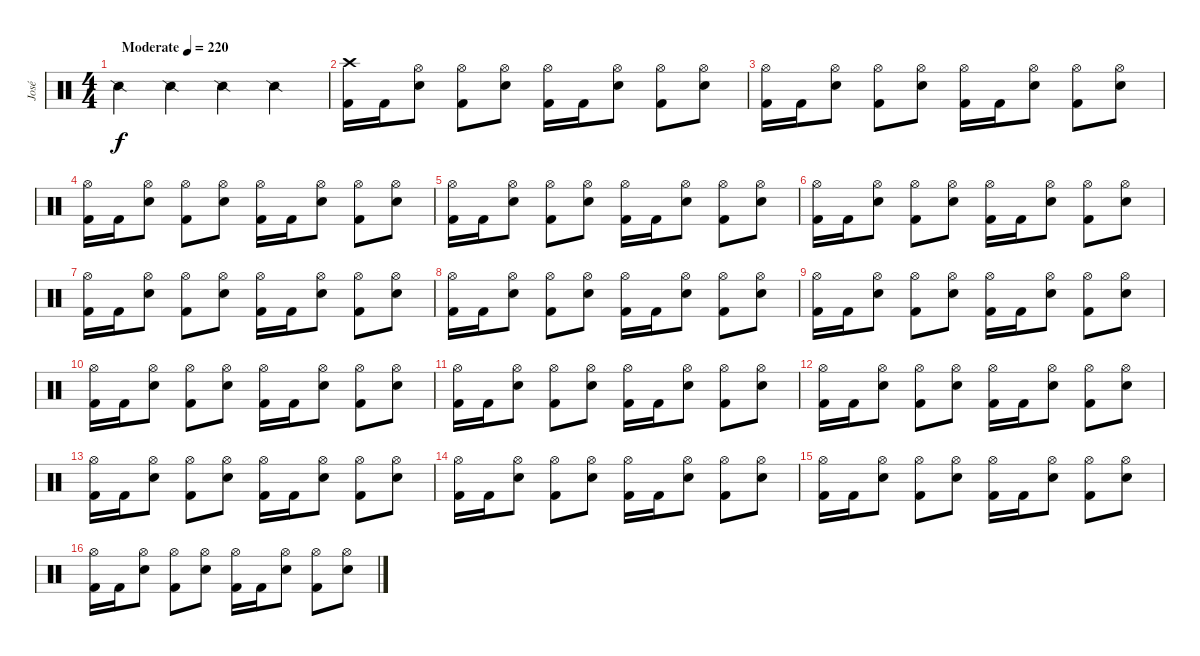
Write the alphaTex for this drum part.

\track ("José" "José") {instrument percussion}
\staff {score}
\articulation defaults
\ts (4 4)
\tempo (220 "Moderate")
\clef neutral
\ks c "Snare (side stick) 2".4{dy f} "Snare (side stick) 2".4 "Snare (side stick) 2".4 "Snare (side stick) 2".4
|
("Crash high (hit)" "Kick (hit) 2").16 "Kick (hit) 2".16 ("Hi-Hat (open)" "Electric Snare (hit)").8 ("Hi-Hat (open)" "Kick (hit) 2").8 ("Hi-Hat (open)" "Electric Snare (hit)").8 ("Hi-Hat (open)" "Kick (hit) 2").16 "Kick (hit) 2".16 ("Hi-Hat (open)" "Electric Snare (hit)").8 ("Hi-Hat (open)" "Kick (hit) 2").8 ("Hi-Hat (open)" "Electric Snare (hit)").8 |
("Hi-Hat (open)" "Kick (hit) 2").16 "Kick (hit) 2".16 ("Hi-Hat (open)" "Electric Snare (hit)").8 ("Hi-Hat (open)" "Kick (hit) 2").8 ("Hi-Hat (open)" "Electric Snare (hit)").8 ("Hi-Hat (open)" "Kick (hit) 2").16 "Kick (hit) 2".16 ("Hi-Hat (open)" "Electric Snare (hit)").8 ("Hi-Hat (open)" "Kick (hit) 2").8 ("Hi-Hat (open)" "Electric Snare (hit)").8 |
("Hi-Hat (open)" "Kick (hit) 2").16 "Kick (hit) 2".16 ("Hi-Hat (open)" "Electric Snare (hit)").8 ("Hi-Hat (open)" "Kick (hit) 2").8 ("Hi-Hat (open)" "Electric Snare (hit)").8 ("Hi-Hat (open)" "Kick (hit) 2").16 "Kick (hit) 2".16 ("Hi-Hat (open)" "Electric Snare (hit)").8 ("Hi-Hat (open)" "Kick (hit) 2").8 ("Hi-Hat (open)" "Electric Snare (hit)").8 |
("Hi-Hat (open)" "Kick (hit) 2").16 "Kick (hit) 2".16 ("Hi-Hat (open)" "Electric Snare (hit)").8 ("Hi-Hat (open)" "Kick (hit) 2").8 ("Hi-Hat (open)" "Electric Snare (hit)").8 ("Hi-Hat (open)" "Kick (hit) 2").16 "Kick (hit) 2".16 ("Hi-Hat (open)" "Electric Snare (hit)").8 ("Hi-Hat (open)" "Kick (hit) 2").8 ("Hi-Hat (open)" "Electric Snare (hit)").8 |
("Hi-Hat (open)" "Kick (hit) 2").16 "Kick (hit) 2".16 ("Hi-Hat (open)" "Electric Snare (hit)").8 ("Hi-Hat (open)" "Kick (hit) 2").8 ("Hi-Hat (open)" "Electric Snare (hit)").8 ("Hi-Hat (open)" "Kick (hit) 2").16 "Kick (hit) 2".16 ("Hi-Hat (open)" "Electric Snare (hit)").8 ("Hi-Hat (open)" "Kick (hit) 2").8 ("Hi-Hat (open)" "Electric Snare (hit)").8 |
("Hi-Hat (open)" "Kick (hit) 2").16 "Kick (hit) 2".16 ("Hi-Hat (open)" "Electric Snare (hit)").8 ("Hi-Hat (open)" "Kick (hit) 2").8 ("Hi-Hat (open)" "Electric Snare (hit)").8 ("Hi-Hat (open)" "Kick (hit) 2").16 "Kick (hit) 2".16 ("Hi-Hat (open)" "Electric Snare (hit)").8 ("Hi-Hat (open)" "Kick (hit) 2").8 ("Hi-Hat (open)" "Electric Snare (hit)").8 |
("Hi-Hat (open)" "Kick (hit) 2").16 "Kick (hit) 2".16 ("Hi-Hat (open)" "Electric Snare (hit)").8 ("Hi-Hat (open)" "Kick (hit) 2").8 ("Hi-Hat (open)" "Electric Snare (hit)").8 ("Hi-Hat (open)" "Kick (hit) 2").16 "Kick (hit) 2".16 ("Hi-Hat (open)" "Electric Snare (hit)").8 ("Hi-Hat (open)" "Kick (hit) 2").8 ("Hi-Hat (open)" "Electric Snare (hit)").8 |
("Hi-Hat (open)" "Kick (hit) 2").16 "Kick (hit) 2".16 ("Hi-Hat (open)" "Electric Snare (hit)").8 ("Hi-Hat (open)" "Kick (hit) 2").8 ("Hi-Hat (open)" "Electric Snare (hit)").8 ("Hi-Hat (open)" "Kick (hit) 2").16 "Kick (hit) 2".16 ("Hi-Hat (open)" "Electric Snare (hit)").8 ("Hi-Hat (open)" "Kick (hit) 2").8 ("Hi-Hat (open)" "Electric Snare (hit)").8 |
("Hi-Hat (open)" "Kick (hit) 2").16 "Kick (hit) 2".16 ("Hi-Hat (open)" "Electric Snare (hit)").8 ("Hi-Hat (open)" "Kick (hit) 2").8 ("Hi-Hat (open)" "Electric Snare (hit)").8 ("Hi-Hat (open)" "Kick (hit) 2").16 "Kick (hit) 2".16 ("Hi-Hat (open)" "Electric Snare (hit)").8 ("Hi-Hat (open)" "Kick (hit) 2").8 ("Hi-Hat (open)" "Electric Snare (hit)").8 |
("Hi-Hat (open)" "Kick (hit) 2").16 "Kick (hit) 2".16 ("Hi-Hat (open)" "Electric Snare (hit)").8 ("Hi-Hat (open)" "Kick (hit) 2").8 ("Hi-Hat (open)" "Electric Snare (hit)").8 ("Hi-Hat (open)" "Kick (hit) 2").16 "Kick (hit) 2".16 ("Hi-Hat (open)" "Electric Snare (hit)").8 ("Hi-Hat (open)" "Kick (hit) 2").8 ("Hi-Hat (open)" "Electric Snare (hit)").8 |
("Hi-Hat (open)" "Kick (hit) 2").16 "Kick (hit) 2".16 ("Hi-Hat (open)" "Electric Snare (hit)").8 ("Hi-Hat (open)" "Kick (hit) 2").8 ("Hi-Hat (open)" "Electric Snare (hit)").8 ("Hi-Hat (open)" "Kick (hit) 2").16 "Kick (hit) 2".16 ("Hi-Hat (open)" "Electric Snare (hit)").8 ("Hi-Hat (open)" "Kick (hit) 2").8 ("Hi-Hat (open)" "Electric Snare (hit)").8 |
("Hi-Hat (open)" "Kick (hit) 2").16 "Kick (hit) 2".16 ("Hi-Hat (open)" "Electric Snare (hit)").8 ("Hi-Hat (open)" "Kick (hit) 2").8 ("Hi-Hat (open)" "Electric Snare (hit)").8 ("Hi-Hat (open)" "Kick (hit) 2").16 "Kick (hit) 2".16 ("Hi-Hat (open)" "Electric Snare (hit)").8 ("Hi-Hat (open)" "Kick (hit) 2").8 ("Hi-Hat (open)" "Electric Snare (hit)").8 |
("Hi-Hat (open)" "Kick (hit) 2").16 "Kick (hit) 2".16 ("Hi-Hat (open)" "Electric Snare (hit)").8 ("Hi-Hat (open)" "Kick (hit) 2").8 ("Hi-Hat (open)" "Electric Snare (hit)").8 ("Hi-Hat (open)" "Kick (hit) 2").16 "Kick (hit) 2".16 ("Hi-Hat (open)" "Electric Snare (hit)").8 ("Hi-Hat (open)" "Kick (hit) 2").8 ("Hi-Hat (open)" "Electric Snare (hit)").8 |
("Hi-Hat (open)" "Kick (hit) 2").16 "Kick (hit) 2".16 ("Hi-Hat (open)" "Electric Snare (hit)").8 ("Hi-Hat (open)" "Kick (hit) 2").8 ("Hi-Hat (open)" "Electric Snare (hit)").8 ("Hi-Hat (open)" "Kick (hit) 2").16 "Kick (hit) 2".16 ("Hi-Hat (open)" "Electric Snare (hit)").8 ("Hi-Hat (open)" "Kick (hit) 2").8 ("Hi-Hat (open)" "Electric Snare (hit)").8 |
("Hi-Hat (open)" "Kick (hit) 2").16 "Kick (hit) 2".16 ("Hi-Hat (open)" "Electric Snare (hit)").8 ("Hi-Hat (open)" "Kick (hit) 2").8 ("Hi-Hat (open)" "Electric Snare (hit)").8 ("Hi-Hat (open)" "Kick (hit) 2").16 "Kick (hit) 2".16 ("Hi-Hat (open)" "Electric Snare (hit)").8 ("Hi-Hat (open)" "Kick (hit) 2").8 ("Hi-Hat (open)" "Electric Snare (hit)").8
